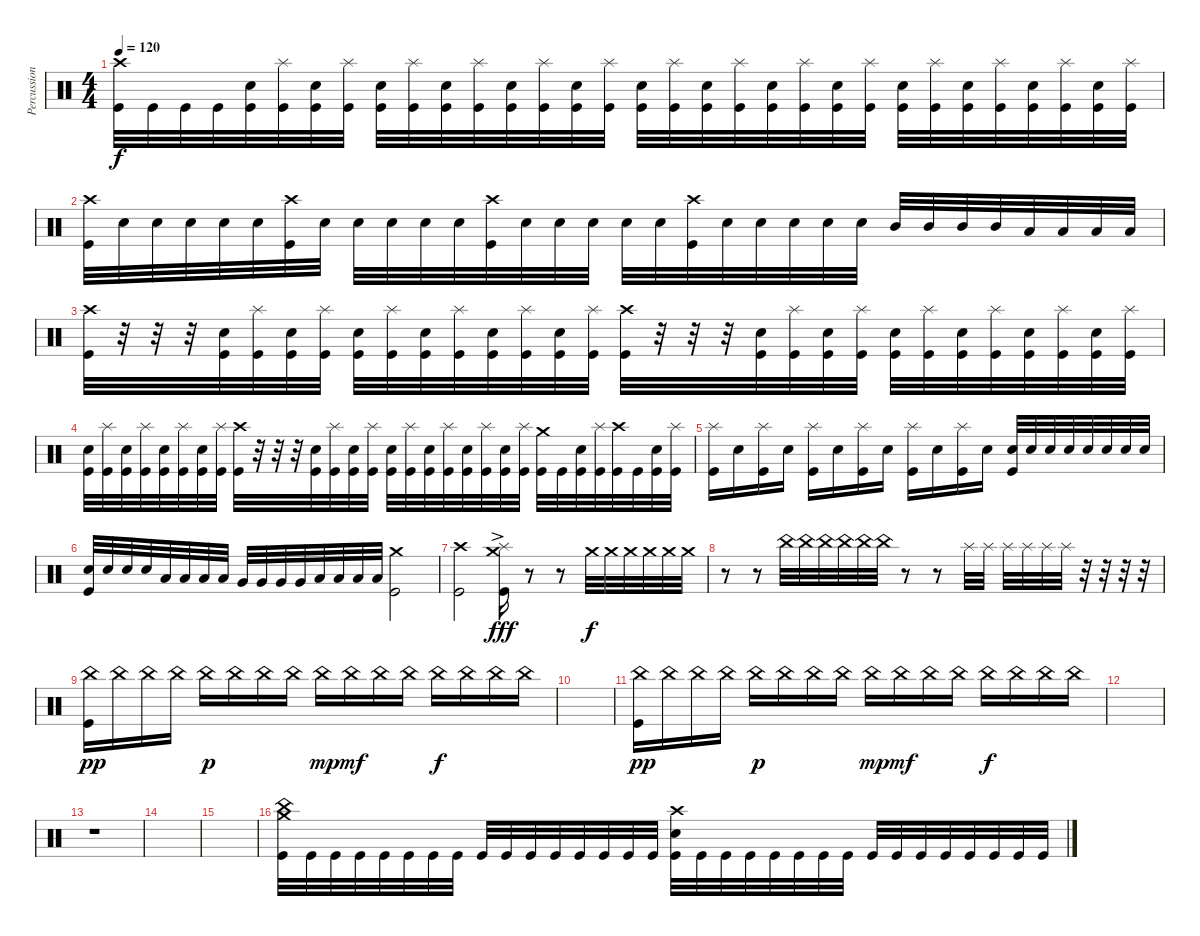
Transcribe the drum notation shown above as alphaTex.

\track ("Percussion" "Percussion") {instrument percussion}
\staff {score}
\articulation defaults
\ts (4 4)
\tempo 120
\clef neutral
\ks c
("Crash high (hit)" "Kick (hit)").32{dy f} "Kick (hit)".32 "Kick (hit)".32 "Kick (hit)".32 ("Electric Snare (hit)" "Kick (hit)").32 ("Splash (hit)" "Kick (hit)").32 ("Electric Snare (hit)" "Kick (hit)").32 ("Splash (hit)" "Kick (hit)").32 ("Electric Snare (hit)" "Kick (hit)").32 ("Splash (hit)" "Kick (hit)").32 ("Electric Snare (hit)" "Kick (hit)").32 ("Splash (hit)" "Kick (hit)").32 ("Electric Snare (hit)" "Kick (hit)").32 ("Splash (hit)" "Kick (hit)").32 ("Electric Snare (hit)" "Kick (hit)").32 ("Splash (hit)" "Kick (hit)").32 ("Electric Snare (hit)" "Kick (hit)").32 ("Splash (hit)" "Kick (hit)").32 ("Electric Snare (hit)" "Kick (hit)").32 ("Splash (hit)" "Kick (hit)").32 ("Electric Snare (hit)" "Kick (hit)").32 ("Splash (hit)" "Kick (hit)").32 ("Electric Snare (hit)" "Kick (hit)").32 ("Splash (hit)" "Kick (hit)").32 ("Electric Snare (hit)" "Kick (hit)").32 ("Splash (hit)" "Kick (hit)").32 ("Electric Snare (hit)" "Kick (hit)").32 ("Splash (hit)" "Kick (hit)").32 ("Electric Snare (hit)" "Kick (hit)").32 ("Splash (hit)" "Kick (hit)").32 ("Electric Snare (hit)" "Kick (hit)").32 ("Splash (hit)" "Kick (hit)").32 |
("Crash high (hit)" "Kick (hit)").32 "Electric Snare (hit)".32 "Electric Snare (hit)".32 "Electric Snare (hit)".32 "Electric Snare (hit)".32 "Electric Snare (hit)".32 ("Crash high (hit)" "Kick (hit)").32 "Electric Snare (hit)".32 "Electric Snare (hit)".32 "Electric Snare (hit)".32 "Electric Snare (hit)".32 "Electric Snare (hit)".32 ("Crash high (hit)" "Kick (hit)").32 "Electric Snare (hit)".32 "Electric Snare (hit)".32 "Electric Snare (hit)".32 "Electric Snare (hit)".32 "Electric Snare (hit)".32 ("Crash high (hit)" "Kick (hit)").32 "Electric Snare (hit)".32 "Electric Snare (hit)".32 "Electric Snare (hit)".32 "Electric Snare (hit)".32 "Electric Snare (hit)".32 "Mid Tom (hit)".32 "Mid Tom (hit)".32 "Mid Tom (hit)".32 "Mid Tom (hit)".32 "Low Tom (hit)".32 "Low Tom (hit)".32 "Low Tom (hit)".32 "Low Tom (hit)".32 |
("Crash high (hit)" "Kick (hit)").32 r.32 r.32 r.32 ("Electric Snare (hit)" "Kick (hit)").32 ("Splash (hit)" "Kick (hit)").32 ("Electric Snare (hit)" "Kick (hit)").32 ("Splash (hit)" "Kick (hit)").32 ("Electric Snare (hit)" "Kick (hit)").32 ("Splash (hit)" "Kick (hit)").32 ("Electric Snare (hit)" "Kick (hit)").32 ("Splash (hit)" "Kick (hit)").32 ("Electric Snare (hit)" "Kick (hit)").32 ("Splash (hit)" "Kick (hit)").32 ("Electric Snare (hit)" "Kick (hit)").32 ("Splash (hit)" "Kick (hit)").32 ("Crash high (hit)" "Kick (hit)").32 r.32 r.32 r.32 ("Electric Snare (hit)" "Kick (hit)").32 ("Splash (hit)" "Kick (hit)").32 ("Electric Snare (hit)" "Kick (hit)").32 ("Splash (hit)" "Kick (hit)").32 ("Electric Snare (hit)" "Kick (hit)").32 ("Splash (hit)" "Kick (hit)").32 ("Electric Snare (hit)" "Kick (hit)").32 ("Splash (hit)" "Kick (hit)").32 ("Electric Snare (hit)" "Kick (hit)").32 ("Splash (hit)" "Kick (hit)").32 ("Electric Snare (hit)" "Kick (hit)").32 ("Splash (hit)" "Kick (hit)").32 |
("Electric Snare (hit)" "Kick (hit)").32 ("Splash (hit)" "Kick (hit)").32 ("Electric Snare (hit)" "Kick (hit)").32 ("Splash (hit)" "Kick (hit)").32 ("Electric Snare (hit)" "Kick (hit)").32 ("Splash (hit)" "Kick (hit)").32 ("Electric Snare (hit)" "Kick (hit)").32 ("Splash (hit)" "Kick (hit)").32 ("Crash high (hit)" "Kick (hit)").32 r.32 r.32 r.32 ("Electric Snare (hit)" "Kick (hit)").32 ("Splash (hit)" "Kick (hit)").32 ("Electric Snare (hit)" "Kick (hit)").32 ("Splash (hit)" "Kick (hit)").32 ("Electric Snare (hit)" "Kick (hit)").32 ("Splash (hit)" "Kick (hit)").32 ("Electric Snare (hit)" "Kick (hit)").32 ("Splash (hit)" "Kick (hit)").32 ("Electric Snare (hit)" "Kick (hit)").32 ("Splash (hit)" "Kick (hit)").32 ("Electric Snare (hit)" "Kick (hit)").32 ("Splash (hit)" "Kick (hit)").32 ("Crash medium (hit)" "Kick (hit)").32 "Kick (hit)".32 ("Electric Snare (hit)" "Kick (hit)").32 ("Splash (hit)" "Kick (hit)").32 ("Crash high (hit)" "Kick (hit)").32 "Kick (hit)".32 ("Electric Snare (hit)" "Kick (hit)").32 ("Splash (hit)" "Kick (hit)").32 |
("Splash (hit)" "Kick (hit)").16 "Electric Snare (hit)".16 ("Splash (hit)" "Kick (hit)").16 "Electric Snare (hit)".16 ("Splash (hit)" "Kick (hit)").16 "Electric Snare (hit)".16 ("Splash (hit)" "Kick (hit)").16 "Electric Snare (hit)".16 ("Splash (hit)" "Kick (hit)").16 "Electric Snare (hit)".16 ("Splash (hit)" "Kick (hit)").16 "Electric Snare (hit)".16 ("Electric Snare (hit)" "Kick (hit)").32 "Electric Snare (hit)".32 "Electric Snare (hit)".32 "Electric Snare (hit)".32 "Electric Snare (hit)".32 "Electric Snare (hit)".32 "Electric Snare (hit)".32 "Electric Snare (hit)".32 |
("Electric Snare (hit)" "Kick (hit)").32 "Electric Snare (hit)".32 "Electric Snare (hit)".32 "Electric Snare (hit)".32 "Low Tom (hit)".32 "Low Tom (hit)".32 "Low Tom (hit)".32 "Low Tom (hit)".32 "Very Low Tom (hit)".32 "Very Low Tom (hit)".32 "Very Low Tom (hit)".32 "Very Low Tom (hit)".32 "Low Floor Tom (hit)".32 "Low Floor Tom (hit)".32 "Low Floor Tom (hit)".32 "Low Floor Tom (hit)".32 ("Crash medium (hit)" "Kick (hit)").2 |
("Crash high (hit)" "Kick (hit)").2 ("Crash medium (hit)" "Splash (hit)"{ac} "Kick (hit)").16{dy fff} r.8 r.8 "Crash medium (hit)".32{dy f} "Crash medium (hit)".32 "Crash medium (hit)".32 "Crash medium (hit)".32 "Crash medium (hit)".32 "Crash medium (hit)".32 |
r.8 r.8 "China (hit)".32 "China (hit)".32 "China (hit)".32 "China (hit)".32 "China (hit)".32 "China (hit)".32 r.8 r.8 "Splash (hit)".32 "Splash (hit)".32 "Splash (hit)".32 "Splash (hit)".32 "Splash (hit)".32 "Splash (hit)".32 r.32 r.32 r.32 r.32 |
("Kick (hit)" "China (hit)").16{dy pp} "China (hit)".16 "China (hit)".16 "China (hit)".16 "China (hit)".16{dy p} "China (hit)".16 "China (hit)".16 "China (hit)".16 "China (hit)".16{dy mp} "China (hit)".16{dy mf} "China (hit)".16 "China (hit)".16 "China (hit)".16{dy f} "China (hit)".16 "China (hit)".16 "China (hit)".16 |
|
("Kick (hit)" "China (hit)").16{dy pp} "China (hit)".16 "China (hit)".16 "China (hit)".16 "China (hit)".16{dy p} "China (hit)".16 "China (hit)".16 "China (hit)".16 "China (hit)".16{dy mp} "China (hit)".16{dy mf} "China (hit)".16 "China (hit)".16 "China (hit)".16{dy f} "China (hit)".16 "China (hit)".16 "China (hit)".16 |
|
r.1 |
|
|
("Crash medium (hit)" "China (hit)" "Kick (hit)").32 "Kick (hit)".32 "Kick (hit)".32 "Kick (hit)".32 "Kick (hit)".32 "Kick (hit)".32 "Kick (hit)".32 "Kick (hit)".32 "Kick (hit)".32 "Kick (hit)".32 "Kick (hit)".32 "Kick (hit)".32 "Kick (hit)".32 "Kick (hit)".32 "Kick (hit)".32 "Kick (hit)".32 ("Crash high (hit)" "Electric Snare (hit)" "Kick (hit)").32 "Kick (hit)".32 "Kick (hit)".32 "Kick (hit)".32 "Kick (hit)".32 "Kick (hit)".32 "Kick (hit)".32 "Kick (hit)".32 "Kick (hit)".32 "Kick (hit)".32 "Kick (hit)".32 "Kick (hit)".32 "Kick (hit)".32 "Kick (hit)".32 "Kick (hit)".32 "Kick (hit)".32
